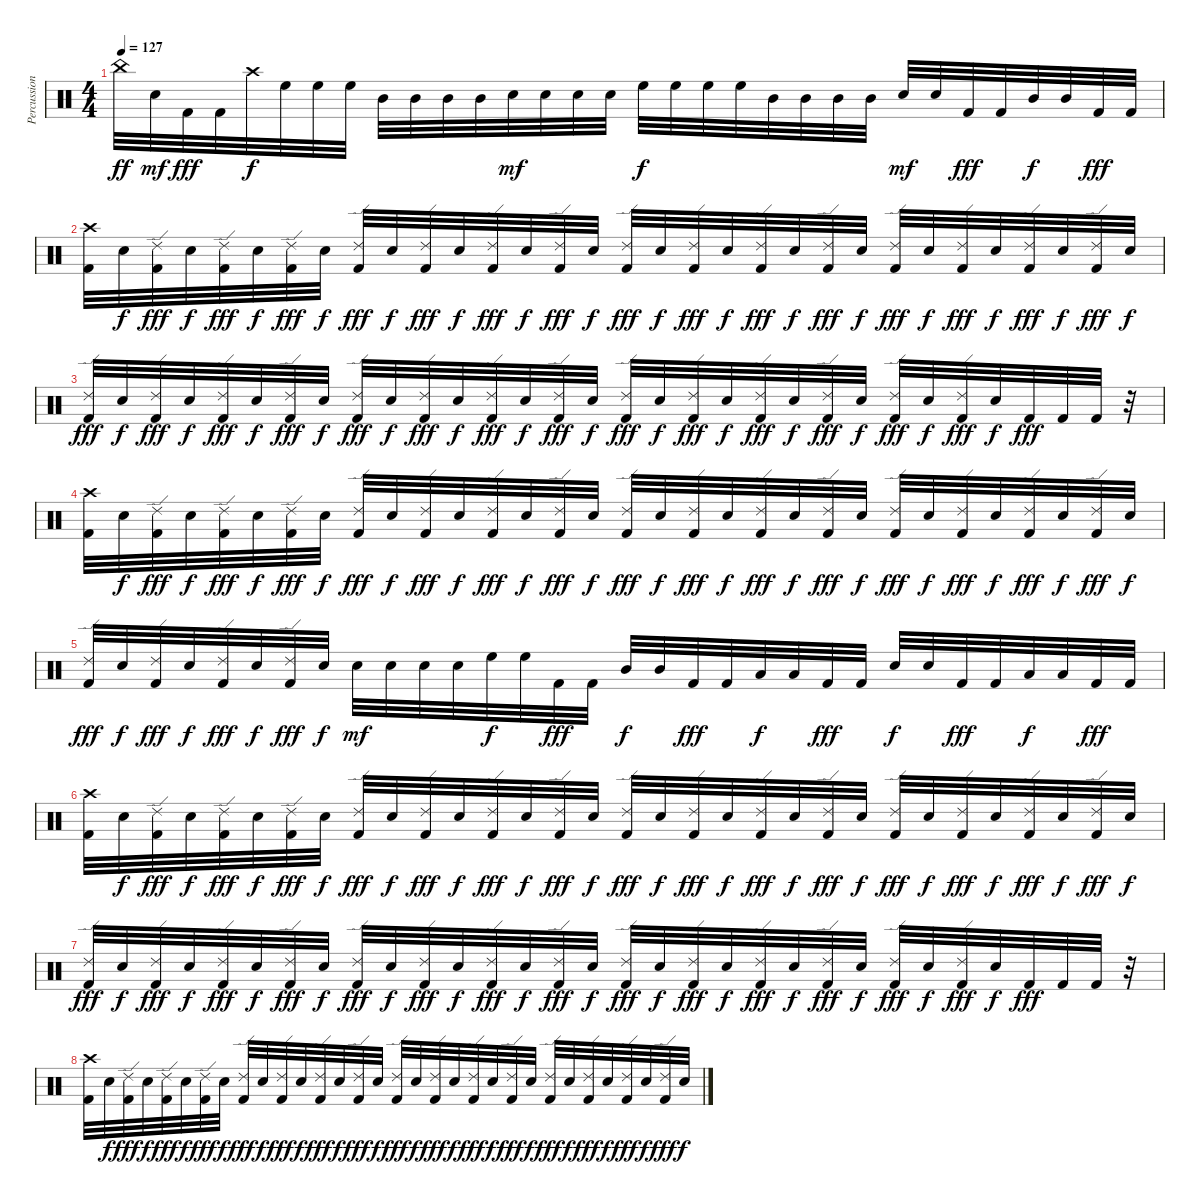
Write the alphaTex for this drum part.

\track ("Percussion" "Percussion") {instrument percussion}
\staff {score}
\articulation defaults
\ts (4 4)
\tempo 127
\clef neutral
\ks c "China (hit)".32{dy ff} "Electric Snare (hit)".32{dy mf} "Kick (hit) 2".32{dy fff} "Kick (hit) 2".32 "Crash high (hit)".32{dy f} "High Floor Tom (hit)".32 "High Floor Tom (hit)".32 "High Floor Tom (hit)".32 "Mid Tom (hit)".32 "Mid Tom (hit)".32 "Mid Tom (hit)".32 "Mid Tom (hit)".32 "Electric Snare (hit)".32{dy mf} "Electric Snare (hit)".32 "Electric Snare (hit)".32 "Electric Snare (hit)".32 "High Floor Tom (hit)".32{dy f} "High Floor Tom (hit)".32 "High Floor Tom (hit)".32 "High Floor Tom (hit)".32 "Mid Tom (hit)".32 "Mid Tom (hit)".32 "Mid Tom (hit)".32 "Mid Tom (hit)".32 "Electric Snare (hit)".32{dy mf} "Electric Snare (hit)".32 "Kick (hit) 2".32{dy fff} "Kick (hit) 2".32 "Mid Tom (hit)".32{dy f} "Mid Tom (hit)".32 "Kick (hit) 2".32{dy fff} "Kick (hit) 2".32
|
("Crash high (hit)" "Kick (hit) 2").32 "Electric Snare (hit)".32{dy f} ("Ride (edge) 2" "Kick (hit) 2").32{dy fff} "Electric Snare (hit)".32{dy f} ("Ride (edge) 2" "Kick (hit) 2").32{dy fff} "Electric Snare (hit)".32{dy f} ("Ride (edge) 2" "Kick (hit) 2").32{dy fff} "Electric Snare (hit)".32{dy f} ("Ride (edge) 2" "Kick (hit) 2").32{dy fff} "Electric Snare (hit)".32{dy f} ("Ride (edge) 2" "Kick (hit) 2").32{dy fff} "Electric Snare (hit)".32{dy f} ("Ride (edge) 2" "Kick (hit) 2").32{dy fff} "Electric Snare (hit)".32{dy f} ("Ride (edge) 2" "Kick (hit) 2").32{dy fff} "Electric Snare (hit)".32{dy f} ("Ride (edge) 2" "Kick (hit) 2").32{dy fff} "Electric Snare (hit)".32{dy f} ("Ride (edge) 2" "Kick (hit) 2").32{dy fff} "Electric Snare (hit)".32{dy f} ("Ride (edge) 2" "Kick (hit) 2").32{dy fff} "Electric Snare (hit)".32{dy f} ("Ride (edge) 2" "Kick (hit) 2").32{dy fff} "Electric Snare (hit)".32{dy f} ("Ride (edge) 2" "Kick (hit) 2").32{dy fff} "Electric Snare (hit)".32{dy f} ("Ride (edge) 2" "Kick (hit) 2").32{dy fff} "Electric Snare (hit)".32{dy f} ("Ride (edge) 2" "Kick (hit) 2").32{dy fff} "Electric Snare (hit)".32{dy f} ("Ride (edge) 2" "Kick (hit) 2").32{dy fff} "Electric Snare (hit)".32{dy f} |
("Ride (edge) 2" "Kick (hit) 2").32{dy fff} "Electric Snare (hit)".32{dy f} ("Ride (edge) 2" "Kick (hit) 2").32{dy fff} "Electric Snare (hit)".32{dy f} ("Ride (edge) 2" "Kick (hit) 2").32{dy fff} "Electric Snare (hit)".32{dy f} ("Ride (edge) 2" "Kick (hit) 2").32{dy fff} "Electric Snare (hit)".32{dy f} ("Ride (edge) 2" "Kick (hit) 2").32{dy fff} "Electric Snare (hit)".32{dy f} ("Ride (edge) 2" "Kick (hit) 2").32{dy fff} "Electric Snare (hit)".32{dy f} ("Ride (edge) 2" "Kick (hit) 2").32{dy fff} "Electric Snare (hit)".32{dy f} ("Ride (edge) 2" "Kick (hit) 2").32{dy fff} "Electric Snare (hit)".32{dy f} ("Ride (edge) 2" "Kick (hit) 2").32{dy fff} "Electric Snare (hit)".32{dy f} ("Ride (edge) 2" "Kick (hit) 2").32{dy fff} "Electric Snare (hit)".32{dy f} ("Ride (edge) 2" "Kick (hit) 2").32{dy fff} "Electric Snare (hit)".32{dy f} ("Ride (edge) 2" "Kick (hit) 2").32{dy fff} "Electric Snare (hit)".32{dy f} ("Ride (edge) 2" "Kick (hit) 2").32{dy fff} "Electric Snare (hit)".32{dy f} ("Ride (edge) 2" "Kick (hit) 2").32{dy fff} "Electric Snare (hit)".32{dy f} "Kick (hit) 2".32{dy fff} "Kick (hit) 2".32 "Kick (hit) 2".32 r.32 |
("Crash high (hit)" "Kick (hit) 2").32 "Electric Snare (hit)".32{dy f} ("Ride (edge) 2" "Kick (hit) 2").32{dy fff} "Electric Snare (hit)".32{dy f} ("Ride (edge) 2" "Kick (hit) 2").32{dy fff} "Electric Snare (hit)".32{dy f} ("Ride (edge) 2" "Kick (hit) 2").32{dy fff} "Electric Snare (hit)".32{dy f} ("Ride (edge) 2" "Kick (hit) 2").32{dy fff} "Electric Snare (hit)".32{dy f} ("Ride (edge) 2" "Kick (hit) 2").32{dy fff} "Electric Snare (hit)".32{dy f} ("Ride (edge) 2" "Kick (hit) 2").32{dy fff} "Electric Snare (hit)".32{dy f} ("Ride (edge) 2" "Kick (hit) 2").32{dy fff} "Electric Snare (hit)".32{dy f} ("Ride (edge) 2" "Kick (hit) 2").32{dy fff} "Electric Snare (hit)".32{dy f} ("Ride (edge) 2" "Kick (hit) 2").32{dy fff} "Electric Snare (hit)".32{dy f} ("Ride (edge) 2" "Kick (hit) 2").32{dy fff} "Electric Snare (hit)".32{dy f} ("Ride (edge) 2" "Kick (hit) 2").32{dy fff} "Electric Snare (hit)".32{dy f} ("Ride (edge) 2" "Kick (hit) 2").32{dy fff} "Electric Snare (hit)".32{dy f} ("Ride (edge) 2" "Kick (hit) 2").32{dy fff} "Electric Snare (hit)".32{dy f} ("Ride (edge) 2" "Kick (hit) 2").32{dy fff} "Electric Snare (hit)".32{dy f} ("Ride (edge) 2" "Kick (hit) 2").32{dy fff} "Electric Snare (hit)".32{dy f} |
("Ride (edge) 2" "Kick (hit) 2").32{dy fff} "Electric Snare (hit)".32{dy f} ("Ride (edge) 2" "Kick (hit) 2").32{dy fff} "Electric Snare (hit)".32{dy f} ("Ride (edge) 2" "Kick (hit) 2").32{dy fff} "Electric Snare (hit)".32{dy f} ("Ride (edge) 2" "Kick (hit) 2").32{dy fff} "Electric Snare (hit)".32{dy f} "Electric Snare (hit)".32{dy mf} "Electric Snare (hit)".32 "Electric Snare (hit)".32 "Electric Snare (hit)".32 "High Floor Tom (hit)".32{dy f} "High Floor Tom (hit)".32 "Kick (hit) 2".32{dy fff} "Kick (hit) 2".32 "Mid Tom (hit)".32{dy f} "Mid Tom (hit)".32 "Kick (hit) 2".32{dy fff} "Kick (hit) 2".32 "Low Tom (hit)".32{dy f} "Low Tom (hit)".32 "Kick (hit) 2".32{dy fff} "Kick (hit) 2".32 "Electric Snare (hit)".32{dy f} "Electric Snare (hit)".32 "Kick (hit) 2".32{dy fff} "Kick (hit) 2".32 "Low Tom (hit)".32{dy f} "Low Tom (hit)".32 "Kick (hit) 2".32{dy fff} "Kick (hit) 2".32 |
("Crash high (hit)" "Kick (hit) 2").32 "Electric Snare (hit)".32{dy f} ("Ride (edge) 2" "Kick (hit) 2").32{dy fff} "Electric Snare (hit)".32{dy f} ("Ride (edge) 2" "Kick (hit) 2").32{dy fff} "Electric Snare (hit)".32{dy f} ("Ride (edge) 2" "Kick (hit) 2").32{dy fff} "Electric Snare (hit)".32{dy f} ("Ride (edge) 2" "Kick (hit) 2").32{dy fff} "Electric Snare (hit)".32{dy f} ("Ride (edge) 2" "Kick (hit) 2").32{dy fff} "Electric Snare (hit)".32{dy f} ("Ride (edge) 2" "Kick (hit) 2").32{dy fff} "Electric Snare (hit)".32{dy f} ("Ride (edge) 2" "Kick (hit) 2").32{dy fff} "Electric Snare (hit)".32{dy f} ("Ride (edge) 2" "Kick (hit) 2").32{dy fff} "Electric Snare (hit)".32{dy f} ("Ride (edge) 2" "Kick (hit) 2").32{dy fff} "Electric Snare (hit)".32{dy f} ("Ride (edge) 2" "Kick (hit) 2").32{dy fff} "Electric Snare (hit)".32{dy f} ("Ride (edge) 2" "Kick (hit) 2").32{dy fff} "Electric Snare (hit)".32{dy f} ("Ride (edge) 2" "Kick (hit) 2").32{dy fff} "Electric Snare (hit)".32{dy f} ("Ride (edge) 2" "Kick (hit) 2").32{dy fff} "Electric Snare (hit)".32{dy f} ("Ride (edge) 2" "Kick (hit) 2").32{dy fff} "Electric Snare (hit)".32{dy f} ("Ride (edge) 2" "Kick (hit) 2").32{dy fff} "Electric Snare (hit)".32{dy f} |
("Ride (edge) 2" "Kick (hit) 2").32{dy fff} "Electric Snare (hit)".32{dy f} ("Ride (edge) 2" "Kick (hit) 2").32{dy fff} "Electric Snare (hit)".32{dy f} ("Ride (edge) 2" "Kick (hit) 2").32{dy fff} "Electric Snare (hit)".32{dy f} ("Ride (edge) 2" "Kick (hit) 2").32{dy fff} "Electric Snare (hit)".32{dy f} ("Ride (edge) 2" "Kick (hit) 2").32{dy fff} "Electric Snare (hit)".32{dy f} ("Ride (edge) 2" "Kick (hit) 2").32{dy fff} "Electric Snare (hit)".32{dy f} ("Ride (edge) 2" "Kick (hit) 2").32{dy fff} "Electric Snare (hit)".32{dy f} ("Ride (edge) 2" "Kick (hit) 2").32{dy fff} "Electric Snare (hit)".32{dy f} ("Ride (edge) 2" "Kick (hit) 2").32{dy fff} "Electric Snare (hit)".32{dy f} ("Ride (edge) 2" "Kick (hit) 2").32{dy fff} "Electric Snare (hit)".32{dy f} ("Ride (edge) 2" "Kick (hit) 2").32{dy fff} "Electric Snare (hit)".32{dy f} ("Ride (edge) 2" "Kick (hit) 2").32{dy fff} "Electric Snare (hit)".32{dy f} ("Ride (edge) 2" "Kick (hit) 2").32{dy fff} "Electric Snare (hit)".32{dy f} ("Ride (edge) 2" "Kick (hit) 2").32{dy fff} "Electric Snare (hit)".32{dy f} "Kick (hit) 2".32{dy fff} "Kick (hit) 2".32 "Kick (hit) 2".32 r.32 |
("Crash high (hit)" "Kick (hit) 2").32 "Electric Snare (hit)".32{dy f} ("Ride (edge) 2" "Kick (hit) 2").32{dy fff} "Electric Snare (hit)".32{dy f} ("Ride (edge) 2" "Kick (hit) 2").32{dy fff} "Electric Snare (hit)".32{dy f} ("Ride (edge) 2" "Kick (hit) 2").32{dy fff} "Electric Snare (hit)".32{dy f} ("Ride (edge) 2" "Kick (hit) 2").32{dy fff} "Electric Snare (hit)".32{dy f} ("Ride (edge) 2" "Kick (hit) 2").32{dy fff} "Electric Snare (hit)".32{dy f} ("Ride (edge) 2" "Kick (hit) 2").32{dy fff} "Electric Snare (hit)".32{dy f} ("Ride (edge) 2" "Kick (hit) 2").32{dy fff} "Electric Snare (hit)".32{dy f} ("Ride (edge) 2" "Kick (hit) 2").32{dy fff} "Electric Snare (hit)".32{dy f} ("Ride (edge) 2" "Kick (hit) 2").32{dy fff} "Electric Snare (hit)".32{dy f} ("Ride (edge) 2" "Kick (hit) 2").32{dy fff} "Electric Snare (hit)".32{dy f} ("Ride (edge) 2" "Kick (hit) 2").32{dy fff} "Electric Snare (hit)".32{dy f} ("Ride (edge) 2" "Kick (hit) 2").32{dy fff} "Electric Snare (hit)".32{dy f} ("Ride (edge) 2" "Kick (hit) 2").32{dy fff} "Electric Snare (hit)".32{dy f} ("Ride (edge) 2" "Kick (hit) 2").32{dy fff} "Electric Snare (hit)".32{dy f} ("Ride (edge) 2" "Kick (hit) 2").32{dy fff} "Electric Snare (hit)".32{dy f}
